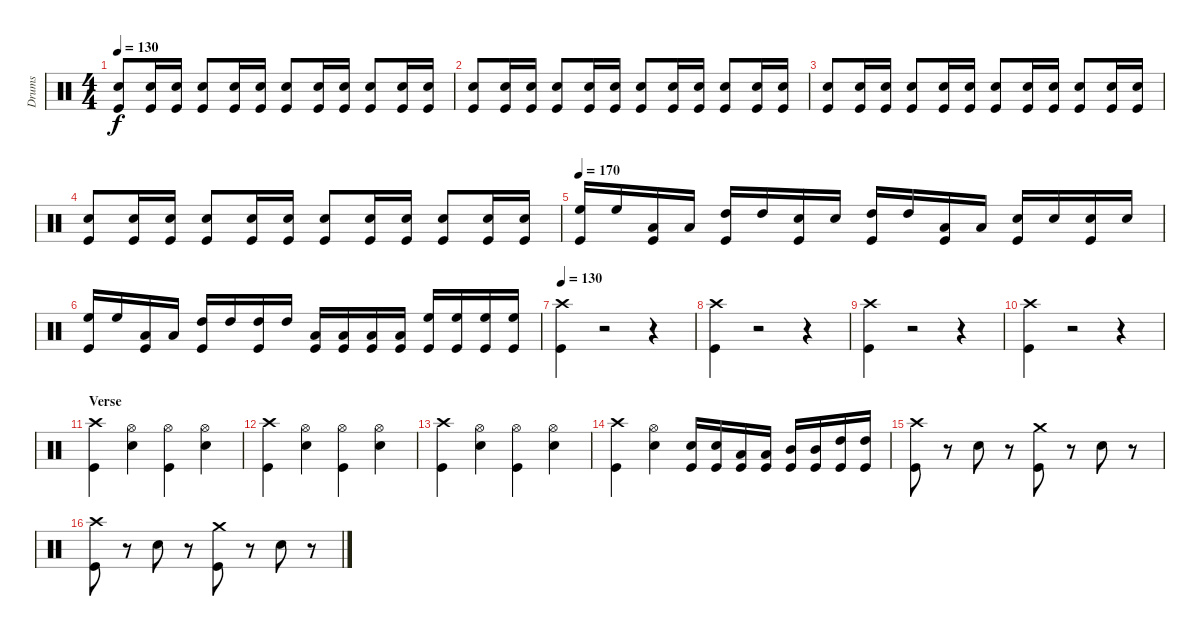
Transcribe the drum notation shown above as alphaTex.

\track ("Drums" "Drums") {instrument percussion}
\staff {score}
\articulation defaults
\ts (4 4)
\tempo 130
\clef neutral
\ks c
("Snare (hit) 2" "Kick (hit)").8{dy f} ("Snare (hit) 2" "Kick (hit)").16 ("Snare (hit) 2" "Kick (hit)").16 ("Snare (hit) 2" "Kick (hit)").8 ("Snare (hit) 2" "Kick (hit)").16 ("Snare (hit) 2" "Kick (hit)").16 ("Snare (hit) 2" "Kick (hit)").8 ("Snare (hit) 2" "Kick (hit)").16 ("Snare (hit) 2" "Kick (hit)").16 ("Snare (hit) 2" "Kick (hit)").8 ("Snare (hit) 2" "Kick (hit)").16 ("Snare (hit) 2" "Kick (hit)").16 |
("Snare (hit) 2" "Kick (hit)").8 ("Snare (hit) 2" "Kick (hit)").16 ("Snare (hit) 2" "Kick (hit)").16 ("Snare (hit) 2" "Kick (hit)").8 ("Snare (hit) 2" "Kick (hit)").16 ("Snare (hit) 2" "Kick (hit)").16 ("Snare (hit) 2" "Kick (hit)").8 ("Snare (hit) 2" "Kick (hit)").16 ("Snare (hit) 2" "Kick (hit)").16 ("Snare (hit) 2" "Kick (hit)").8 ("Snare (hit) 2" "Kick (hit)").16 ("Snare (hit) 2" "Kick (hit)").16 |
("Snare (hit) 2" "Kick (hit)").8 ("Snare (hit) 2" "Kick (hit)").16 ("Snare (hit) 2" "Kick (hit)").16 ("Snare (hit) 2" "Kick (hit)").8 ("Snare (hit) 2" "Kick (hit)").16 ("Snare (hit) 2" "Kick (hit)").16 ("Snare (hit) 2" "Kick (hit)").8 ("Snare (hit) 2" "Kick (hit)").16 ("Snare (hit) 2" "Kick (hit)").16 ("Snare (hit) 2" "Kick (hit)").8 ("Snare (hit) 2" "Kick (hit)").16 ("Snare (hit) 2" "Kick (hit)").16 |
("Snare (hit) 2" "Kick (hit)").8 ("Snare (hit) 2" "Kick (hit)").16 ("Snare (hit) 2" "Kick (hit)").16 ("Snare (hit) 2" "Kick (hit)").8 ("Snare (hit) 2" "Kick (hit)").16 ("Snare (hit) 2" "Kick (hit)").16 ("Snare (hit) 2" "Kick (hit)").8 ("Snare (hit) 2" "Kick (hit)").16 ("Snare (hit) 2" "Kick (hit)").16 ("Snare (hit) 2" "Kick (hit)").8 ("Snare (hit) 2" "Kick (hit)").16 ("Snare (hit) 2" "Kick (hit)").16 |
\tempo 170
("High Floor Tom (hit)" "Kick (hit)").16 "High Floor Tom (hit)".16 ("Low Tom (hit)" "Kick (hit)").16 "Low Tom (hit)".16 ("High Tom (hit)" "Kick (hit)").16 "High Tom (hit)".16 ("Electric Snare (hit)" "Kick (hit)").16 "Electric Snare (hit)".16 ("High Tom (hit)" "Kick (hit)").16 "High Tom (hit)".16 ("Low Tom (hit)" "Kick (hit)").16 "Low Tom (hit)".16 ("Snare (hit) 2" "Kick (hit)").16 "Snare (hit) 2".16 ("Electric Snare (hit)" "Kick (hit)").16 "Electric Snare (hit)".16 |
("High Floor Tom (hit)" "Kick (hit)").16 "High Floor Tom (hit)".16 ("Low Tom (hit)" "Kick (hit)").16 "Low Tom (hit)".16 ("High Tom (hit)" "Kick (hit)").16 "High Tom (hit)".16 ("High Tom (hit)" "Kick (hit)").16 "High Tom (hit)".16 ("Low Tom (hit)" "Kick (hit)").16 ("Low Tom (hit)" "Kick (hit)").16 ("Low Tom (hit)" "Kick (hit)").16 ("Low Tom (hit)" "Kick (hit)").16 ("High Floor Tom (hit)" "Kick (hit)").16 ("High Floor Tom (hit)" "Kick (hit)").16 ("High Floor Tom (hit)" "Kick (hit)").16 ("High Floor Tom (hit)" "Kick (hit)").16 |
\tempo 130
("Crash high (hit)" "Kick (hit)").4 r.2 r.4 |
("Crash high (hit)" "Kick (hit)").4 r.2 r.4 |
("Crash high (hit)" "Kick (hit)").4 r.2 r.4 |
("Crash high (hit)" "Kick (hit)").4 r.2 r.4 |
\section ("" "Verse")
("Crash high (hit)" "Kick (hit)").4 ("Electric Snare (hit)" "Hi-Hat (open)").4 ("Hi-Hat (open)" "Kick (hit)").4 ("Electric Snare (hit)" "Hi-Hat (open)").4 |
("Crash high (hit)" "Kick (hit)").4 ("Electric Snare (hit)" "Hi-Hat (open)").4 ("Hi-Hat (open)" "Kick (hit)").4 ("Electric Snare (hit)" "Hi-Hat (open)").4 |
("Crash high (hit)" "Kick (hit)").4 ("Electric Snare (hit)" "Hi-Hat (open)").4 ("Hi-Hat (open)" "Kick (hit)").4 ("Electric Snare (hit)" "Hi-Hat (open)").4 |
("Crash high (hit)" "Kick (hit)").4 ("Electric Snare (hit)" "Hi-Hat (open)").4 ("Electric Snare (hit)" "Kick (hit)").16 ("Electric Snare (hit)" "Kick (hit)").16 ("Low Tom (hit)" "Kick (hit)").16 ("Low Tom (hit)" "Kick (hit)").16 ("Mid Tom (hit)" "Kick (hit)").16 ("Mid Tom (hit)" "Kick (hit)").16 ("High Tom (hit)" "Kick (hit)").16 ("High Tom (hit)" "Kick (hit)").16 |
("Crash high (hit)" "Kick (hit)").8 r.8 "Electric Snare (hit)".8 r.8 ("Crash medium (hit)" "Kick (hit)").8 r.8 "Electric Snare (hit)".8 r.8 |
("Crash high (hit)" "Kick (hit)").8 r.8 "Electric Snare (hit)".8 r.8 ("Crash medium (hit)" "Kick (hit)").8 r.8 "Electric Snare (hit)".8 r.8
